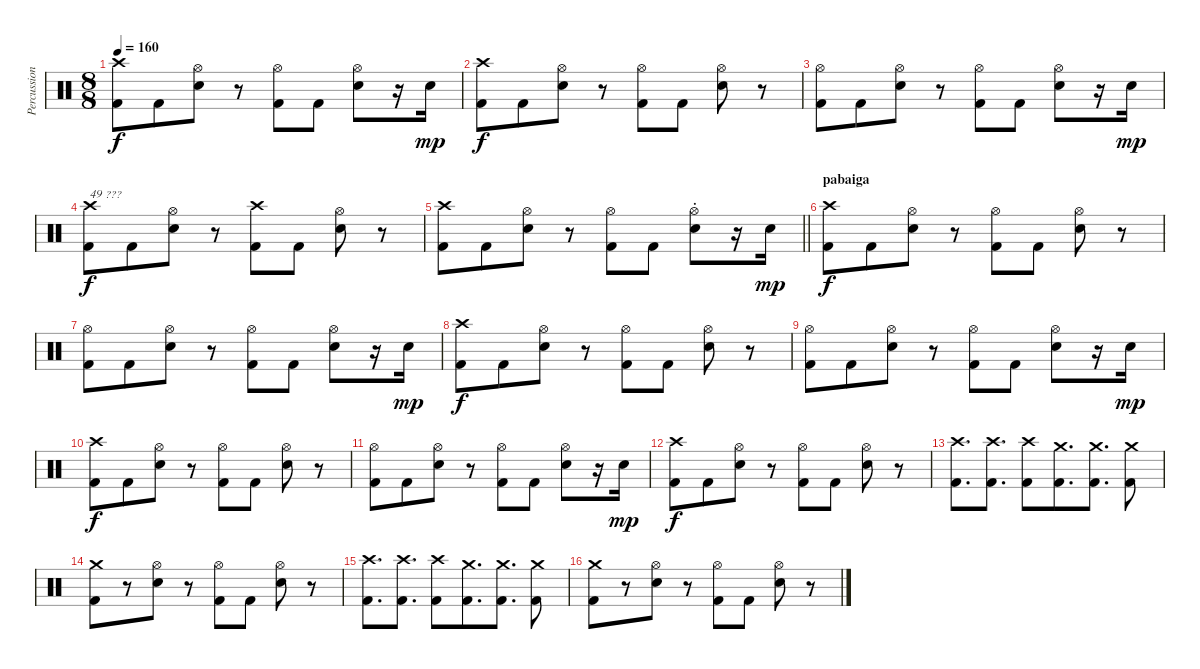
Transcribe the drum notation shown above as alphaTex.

\track ("Percussion" "Percussion") {instrument percussion}
\staff {score}
\articulation defaults
\ts (8 8)
\tempo 160
\clef neutral
\ks c
("Crash high (hit)" "Kick (hit) 2").8{dy f} "Kick (hit) 2".8 ("Hi-Hat (open)" "Snare (hit) 2").8 r.8 ("Hi-Hat (open)" "Kick (hit) 2").8 "Kick (hit) 2".8 ("Hi-Hat (open)" "Snare (hit) 2").8 r.16 "Snare (hit) 2".16{dy mp} |
("Crash high (hit)" "Kick (hit) 2").8{dy f} "Kick (hit) 2".8 ("Hi-Hat (open)" "Snare (hit) 2").8 r.8 ("Hi-Hat (open)" "Kick (hit) 2").8 "Kick (hit) 2".8 ("Hi-Hat (open)" "Snare (hit) 2").8 r.8 |
("Hi-Hat (open)" "Kick (hit) 2").8 "Kick (hit) 2".8 ("Hi-Hat (open)" "Snare (hit) 2").8 r.8 ("Hi-Hat (open)" "Kick (hit) 2").8 "Kick (hit) 2".8 ("Hi-Hat (open)" "Snare (hit) 2").8 r.16 "Snare (hit) 2".16{dy mp} |
("Crash high (hit)" "Kick (hit) 2").8{txt "49 ???" dy f} "Kick (hit) 2".8 ("Hi-Hat (open)" "Snare (hit) 2").8 r.8 ("Crash high (hit)" "Kick (hit) 2").8 "Kick (hit) 2".8 ("Hi-Hat (open)" "Snare (hit) 2").8 r.8 |
\barLineRight lightlight
("Crash high (hit)" "Kick (hit) 2").8 "Kick (hit) 2".8 ("Hi-Hat (open)" "Snare (hit) 2").8 r.8 ("Hi-Hat (open)" "Kick (hit) 2").8 "Kick (hit) 2".8 ("Hi-Hat (open)" "Snare (hit) 2"{st}).8 r.16 "Snare (hit) 2".16{dy mp} |
\section ("" "pabaiga")
("Crash high (hit)" "Kick (hit) 2").8{dy f} "Kick (hit) 2".8 ("Hi-Hat (open)" "Snare (hit) 2").8 r.8 ("Hi-Hat (open)" "Kick (hit) 2").8 "Kick (hit) 2".8 ("Hi-Hat (open)" "Snare (hit) 2").8 r.8 |
("Hi-Hat (open)" "Kick (hit) 2").8 "Kick (hit) 2".8 ("Hi-Hat (open)" "Snare (hit) 2").8 r.8 ("Hi-Hat (open)" "Kick (hit) 2").8 "Kick (hit) 2".8 ("Hi-Hat (open)" "Snare (hit) 2").8 r.16 "Snare (hit) 2".16{dy mp} |
("Crash high (hit)" "Kick (hit) 2").8{dy f} "Kick (hit) 2".8 ("Hi-Hat (open)" "Snare (hit) 2").8 r.8 ("Hi-Hat (open)" "Kick (hit) 2").8 "Kick (hit) 2".8 ("Hi-Hat (open)" "Snare (hit) 2").8 r.8 |
("Hi-Hat (open)" "Kick (hit) 2").8 "Kick (hit) 2".8 ("Hi-Hat (open)" "Snare (hit) 2").8 r.8 ("Hi-Hat (open)" "Kick (hit) 2").8 "Kick (hit) 2".8 ("Hi-Hat (open)" "Snare (hit) 2").8 r.16 "Snare (hit) 2".16{dy mp} |
("Crash high (hit)" "Kick (hit) 2").8{dy f} "Kick (hit) 2".8 ("Hi-Hat (open)" "Snare (hit) 2").8 r.8 ("Hi-Hat (open)" "Kick (hit) 2").8 "Kick (hit) 2".8 ("Hi-Hat (open)" "Snare (hit) 2").8 r.8 |
("Hi-Hat (open)" "Kick (hit) 2").8 "Kick (hit) 2".8 ("Hi-Hat (open)" "Snare (hit) 2").8 r.8 ("Hi-Hat (open)" "Kick (hit) 2").8 "Kick (hit) 2".8 ("Hi-Hat (open)" "Snare (hit) 2").8 r.16 "Snare (hit) 2".16{dy mp} |
("Crash high (hit)" "Kick (hit) 2").8{dy f} "Kick (hit) 2".8 ("Hi-Hat (open)" "Snare (hit) 2").8 r.8 ("Hi-Hat (open)" "Kick (hit) 2").8 "Kick (hit) 2".8 ("Hi-Hat (open)" "Snare (hit) 2").8 r.8 |
("Crash high (hit)" "Kick (hit) 2").8{d} ("Crash high (hit)" "Kick (hit) 2").8{d} ("Crash high (hit)" "Kick (hit) 2").8 ("Crash medium (hit)" "Kick (hit) 2").8{d} ("Crash medium (hit)" "Kick (hit) 2").8{d} ("Crash medium (hit)" "Kick (hit) 2").8 |
("Crash medium (hit)" "Kick (hit) 2").8 r.8 ("Hi-Hat (open)" "Snare (hit) 2").8 r.8 ("Hi-Hat (open)" "Kick (hit) 2").8 "Kick (hit) 2".8 ("Hi-Hat (open)" "Snare (hit) 2").8 r.8 |
("Crash high (hit)" "Kick (hit) 2").8{d} ("Crash high (hit)" "Kick (hit) 2").8{d} ("Crash high (hit)" "Kick (hit) 2").8 ("Crash medium (hit)" "Kick (hit) 2").8{d} ("Crash medium (hit)" "Kick (hit) 2").8{d} ("Crash medium (hit)" "Kick (hit) 2").8 |
("Crash medium (hit)" "Kick (hit) 2").8 r.8 ("Hi-Hat (open)" "Snare (hit) 2").8 r.8 ("Hi-Hat (open)" "Kick (hit) 2").8 "Kick (hit) 2".8 ("Hi-Hat (open)" "Snare (hit) 2").8 r.8
